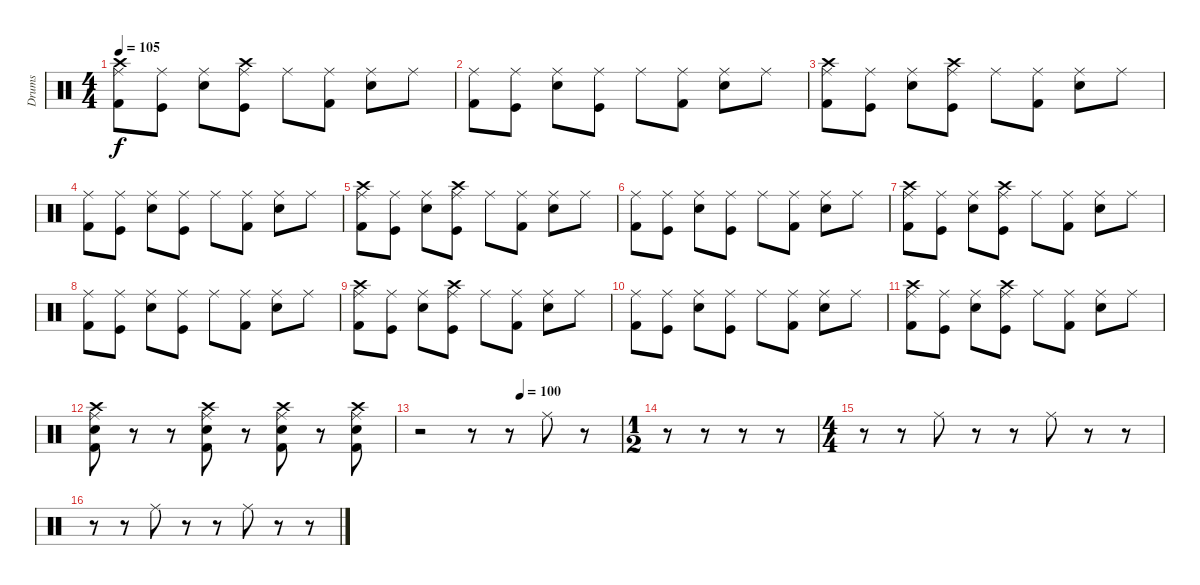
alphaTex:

\track ("Drums" "Drums") {instrument percussion}
\staff {score}
\articulation defaults
\ts (4 4)
\tempo 105
\clef neutral
\ks c
("Ride (middle)" "Crash high (hit)" "Kick (hit) 2").8{dy f} ("Ride (middle)" "Kick (hit)").8 ("Ride (middle)" "Snare (hit) 2").8 ("Ride (middle)" "Crash high (hit)" "Kick (hit)").8 "Ride (middle)".8 ("Ride (middle)" "Kick (hit) 2").8 ("Ride (middle)" "Snare (hit) 2").8 "Ride (middle)".8 |
("Ride (middle)" "Kick (hit) 2").8 ("Ride (middle)" "Kick (hit)").8 ("Ride (middle)" "Snare (hit) 2").8 ("Ride (middle)" "Kick (hit)").8 "Ride (middle)".8 ("Ride (middle)" "Kick (hit) 2").8 ("Ride (middle)" "Snare (hit) 2").8 "Ride (middle)".8 |
("Ride (middle)" "Crash high (hit)" "Kick (hit) 2").8 ("Ride (middle)" "Kick (hit)").8 ("Ride (middle)" "Snare (hit) 2").8 ("Ride (middle)" "Crash high (hit)" "Kick (hit)").8 "Ride (middle)".8 ("Ride (middle)" "Kick (hit) 2").8 ("Ride (middle)" "Snare (hit) 2").8 "Ride (middle)".8 |
("Ride (middle)" "Kick (hit) 2").8 ("Ride (middle)" "Kick (hit)").8 ("Ride (middle)" "Snare (hit) 2").8 ("Ride (middle)" "Kick (hit)").8 "Ride (middle)".8 ("Ride (middle)" "Kick (hit) 2").8 ("Ride (middle)" "Snare (hit) 2").8 "Ride (middle)".8 |
("Ride (middle)" "Crash high (hit)" "Kick (hit) 2").8 ("Ride (middle)" "Kick (hit)").8 ("Ride (middle)" "Snare (hit) 2").8 ("Ride (middle)" "Crash high (hit)" "Kick (hit)").8 "Ride (middle)".8 ("Ride (middle)" "Kick (hit) 2").8 ("Ride (middle)" "Snare (hit) 2").8 "Ride (middle)".8 |
("Ride (middle)" "Kick (hit) 2").8 ("Ride (middle)" "Kick (hit)").8 ("Ride (middle)" "Snare (hit) 2").8 ("Ride (middle)" "Kick (hit)").8 "Ride (middle)".8 ("Ride (middle)" "Kick (hit) 2").8 ("Ride (middle)" "Snare (hit) 2").8 "Ride (middle)".8 |
("Ride (middle)" "Crash high (hit)" "Kick (hit) 2").8 ("Ride (middle)" "Kick (hit)").8 ("Ride (middle)" "Snare (hit) 2").8 ("Ride (middle)" "Crash high (hit)" "Kick (hit)").8 "Ride (middle)".8 ("Ride (middle)" "Kick (hit) 2").8 ("Ride (middle)" "Snare (hit) 2").8 "Ride (middle)".8 |
("Ride (middle)" "Kick (hit) 2").8 ("Ride (middle)" "Kick (hit)").8 ("Ride (middle)" "Snare (hit) 2").8 ("Ride (middle)" "Kick (hit)").8 "Ride (middle)".8 ("Ride (middle)" "Kick (hit) 2").8 ("Ride (middle)" "Snare (hit) 2").8 "Ride (middle)".8 |
("Ride (middle)" "Crash high (hit)" "Kick (hit) 2").8 ("Ride (middle)" "Kick (hit)").8 ("Ride (middle)" "Snare (hit) 2").8 ("Ride (middle)" "Crash high (hit)" "Kick (hit)").8 "Ride (middle)".8 ("Ride (middle)" "Kick (hit) 2").8 ("Ride (middle)" "Snare (hit) 2").8 "Ride (middle)".8 |
("Ride (middle)" "Kick (hit) 2").8 ("Ride (middle)" "Kick (hit)").8 ("Ride (middle)" "Snare (hit) 2").8 ("Ride (middle)" "Kick (hit)").8 "Ride (middle)".8 ("Ride (middle)" "Kick (hit) 2").8 ("Ride (middle)" "Snare (hit) 2").8 "Ride (middle)".8 |
("Ride (middle)" "Crash high (hit)" "Kick (hit) 2").8 ("Ride (middle)" "Kick (hit)").8 ("Ride (middle)" "Snare (hit) 2").8 ("Ride (middle)" "Crash high (hit)" "Kick (hit)").8 "Ride (middle)".8 ("Ride (middle)" "Kick (hit) 2").8 ("Ride (middle)" "Snare (hit) 2").8 "Ride (middle)".8 |
("Crash high (hit)" "Ride (middle)" "Snare (hit) 2" "Kick (hit) 2").8 r.8 r.8 ("Crash high (hit)" "Ride (middle)" "Snare (hit) 2" "Kick (hit) 2").8 r.8 ("Crash high (hit)" "Ride (middle)" "Snare (hit) 2" "Kick (hit) 2").8 r.8 ("Crash high (hit)" "Ride (middle)" "Snare (hit) 2" "Kick (hit) 2").8 |
\tempo (100 0.5)
r.2 r.8 r.8 "Ride (middle)".8 r.8 |
\ts (1 2)
r.8 r.8 r.8 r.8 |
\ts (4 4)
r.8 r.8 "Ride (middle)".8 r.8 r.8 "Ride (middle)".8 r.8 r.8 |
r.8 r.8 "Ride (middle)".8 r.8 r.8 "Ride (middle)".8 r.8 r.8
